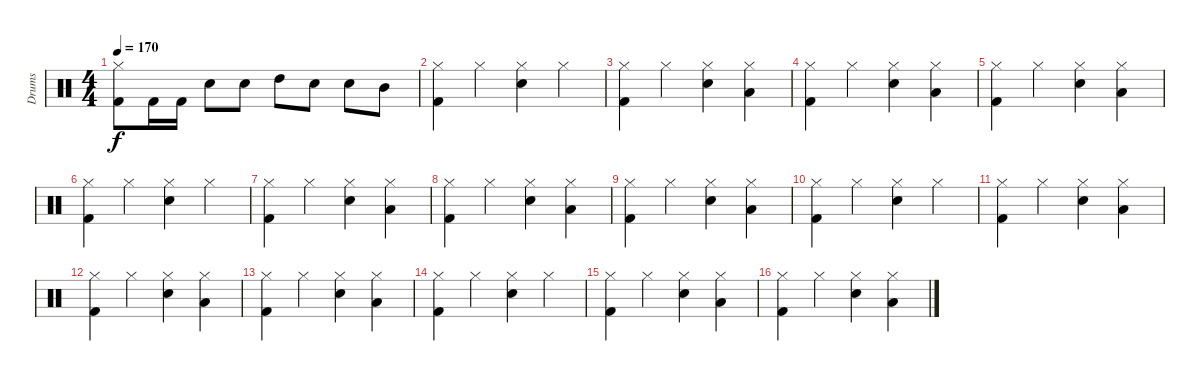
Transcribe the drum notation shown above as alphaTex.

\track ("Drums" "Drums") {instrument percussion}
\staff {score}
\articulation defaults
\ts (4 4)
\tempo 170
\clef neutral
\ks c
("Kick (hit) 2" "Hi-Hat (closed)").8{dy f} "Kick (hit) 2".16 "Kick (hit) 2".16 "Snare (hit) 2".8 "Snare (hit) 2".8 "High Tom (hit)".8 "Snare (hit) 2".8 "Snare (hit) 2".8 "Mid Tom (hit)".8 |
("Kick (hit) 2" "Hi-Hat (closed)").4 "Hi-Hat (closed)".4 ("Snare (hit) 2" "Hi-Hat (closed)").4 "Hi-Hat (closed)".4 |
("Kick (hit) 2" "Hi-Hat (closed)").4 "Hi-Hat (closed)".4 ("Snare (hit) 2" "Hi-Hat (closed)").4 ("Low Tom (hit)" "Hi-Hat (closed)").4 |
("Kick (hit) 2" "Hi-Hat (closed)").4 "Hi-Hat (closed)".4 ("Snare (hit) 2" "Hi-Hat (closed)").4 ("Low Tom (hit)" "Hi-Hat (closed)").4 |
("Kick (hit) 2" "Hi-Hat (closed)").4 "Hi-Hat (closed)".4 ("Snare (hit) 2" "Hi-Hat (closed)").4 ("Low Tom (hit)" "Hi-Hat (closed)").4 |
("Kick (hit) 2" "Hi-Hat (closed)").4 "Hi-Hat (closed)".4 ("Snare (hit) 2" "Hi-Hat (closed)").4 "Hi-Hat (closed)".4 |
("Kick (hit) 2" "Hi-Hat (closed)").4 "Hi-Hat (closed)".4 ("Snare (hit) 2" "Hi-Hat (closed)").4 ("Low Tom (hit)" "Hi-Hat (closed)").4 |
("Kick (hit) 2" "Hi-Hat (closed)").4 "Hi-Hat (closed)".4 ("Snare (hit) 2" "Hi-Hat (closed)").4 ("Low Tom (hit)" "Hi-Hat (closed)").4 |
("Kick (hit) 2" "Hi-Hat (closed)").4 "Hi-Hat (closed)".4 ("Snare (hit) 2" "Hi-Hat (closed)").4 ("Low Tom (hit)" "Hi-Hat (closed)").4 |
("Kick (hit) 2" "Hi-Hat (closed)").4 "Hi-Hat (closed)".4 ("Snare (hit) 2" "Hi-Hat (closed)").4 "Hi-Hat (closed)".4 |
("Kick (hit) 2" "Hi-Hat (closed)").4 "Hi-Hat (closed)".4 ("Snare (hit) 2" "Hi-Hat (closed)").4 ("Low Tom (hit)" "Hi-Hat (closed)").4 |
("Kick (hit) 2" "Hi-Hat (closed)").4 "Hi-Hat (closed)".4 ("Snare (hit) 2" "Hi-Hat (closed)").4 ("Low Tom (hit)" "Hi-Hat (closed)").4 |
("Kick (hit) 2" "Hi-Hat (closed)").4 "Hi-Hat (closed)".4 ("Snare (hit) 2" "Hi-Hat (closed)").4 ("Low Tom (hit)" "Hi-Hat (closed)").4 |
("Kick (hit) 2" "Hi-Hat (closed)").4 "Hi-Hat (closed)".4 ("Snare (hit) 2" "Hi-Hat (closed)").4 "Hi-Hat (closed)".4 |
("Kick (hit) 2" "Hi-Hat (closed)").4 "Hi-Hat (closed)".4 ("Snare (hit) 2" "Hi-Hat (closed)").4 ("Low Tom (hit)" "Hi-Hat (closed)").4 |
("Kick (hit) 2" "Hi-Hat (closed)").4 "Hi-Hat (closed)".4 ("Snare (hit) 2" "Hi-Hat (closed)").4 ("Low Tom (hit)" "Hi-Hat (closed)").4
